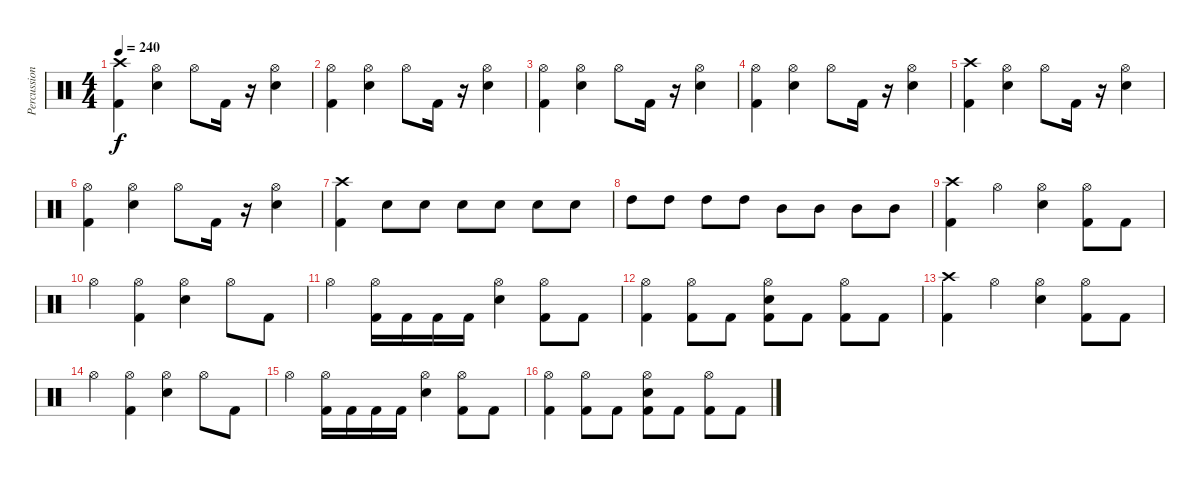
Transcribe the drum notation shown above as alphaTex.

\track ("Percussion" "Percussion") {instrument percussion}
\staff {score}
\articulation defaults
\ts (4 4)
\tempo 240
\clef neutral
\ks c
("Kick (hit) 2" "Crash high (hit)").4{dy f} ("Electric Snare (hit)" "Hi-Hat (open)").4 "Hi-Hat (open)".8 "Kick (hit) 2".16 r.16 ("Electric Snare (hit)" "Hi-Hat (open)").4 |
("Kick (hit) 2" "Hi-Hat (open)").4 ("Electric Snare (hit)" "Hi-Hat (open)").4 "Hi-Hat (open)".8 "Kick (hit) 2".16 r.16 ("Electric Snare (hit)" "Hi-Hat (open)").4 |
("Kick (hit) 2" "Hi-Hat (open)").4 ("Electric Snare (hit)" "Hi-Hat (open)").4 "Hi-Hat (open)".8 "Kick (hit) 2".16 r.16 ("Electric Snare (hit)" "Hi-Hat (open)").4 |
("Kick (hit) 2" "Hi-Hat (open)").4 ("Electric Snare (hit)" "Hi-Hat (open)").4 "Hi-Hat (open)".8 "Kick (hit) 2".16 r.16 ("Electric Snare (hit)" "Hi-Hat (open)").4 |
("Kick (hit) 2" "Crash high (hit)").4 ("Electric Snare (hit)" "Hi-Hat (open)").4 "Hi-Hat (open)".8 "Kick (hit) 2".16 r.16 ("Electric Snare (hit)" "Hi-Hat (open)").4 |
("Kick (hit) 2" "Hi-Hat (open)").4 ("Electric Snare (hit)" "Hi-Hat (open)").4 "Hi-Hat (open)".8 "Kick (hit) 2".16 r.16 ("Electric Snare (hit)" "Hi-Hat (open)").4 |
("Kick (hit) 2" "Crash high (hit)").4 "Electric Snare (hit)".8 "Electric Snare (hit)".8 "Electric Snare (hit)".8 "Electric Snare (hit)".8 "Electric Snare (hit)".8 "Electric Snare (hit)".8 |
"High Tom (hit)".8 "High Tom (hit)".8 "High Tom (hit)".8 "High Tom (hit)".8 "Mid Tom (hit)".8 "Mid Tom (hit)".8 "Mid Tom (hit)".8 "Mid Tom (hit)".8 |
("Kick (hit) 2" "Crash high (hit)").4 "Hi-Hat (open)".4 ("Electric Snare (hit)" "Hi-Hat (open)").4 ("Kick (hit) 2" "Hi-Hat (open)").8 "Kick (hit) 2".8 |
"Hi-Hat (open)".4 ("Kick (hit) 2" "Hi-Hat (open)").4 ("Electric Snare (hit)" "Hi-Hat (open)").4 "Hi-Hat (open)".8 "Kick (hit) 2".8 |
"Hi-Hat (open)".4 ("Kick (hit) 2" "Hi-Hat (open)").16 "Kick (hit) 2".16 "Kick (hit) 2".16 "Kick (hit) 2".16 ("Electric Snare (hit)" "Hi-Hat (open)").4 ("Kick (hit) 2" "Hi-Hat (open)").8 "Kick (hit) 2".8 |
("Kick (hit) 2" "Hi-Hat (open)").4 ("Kick (hit) 2" "Hi-Hat (open)").8 "Kick (hit) 2".8 ("Kick (hit) 2" "Electric Snare (hit)" "Hi-Hat (open)").8 "Kick (hit) 2".8 ("Kick (hit) 2" "Hi-Hat (open)").8 "Kick (hit) 2".8 |
("Kick (hit) 2" "Crash high (hit)").4 "Hi-Hat (open)".4 ("Electric Snare (hit)" "Hi-Hat (open)").4 ("Kick (hit) 2" "Hi-Hat (open)").8 "Kick (hit) 2".8 |
"Hi-Hat (open)".4 ("Kick (hit) 2" "Hi-Hat (open)").4 ("Electric Snare (hit)" "Hi-Hat (open)").4 "Hi-Hat (open)".8 "Kick (hit) 2".8 |
"Hi-Hat (open)".4 ("Kick (hit) 2" "Hi-Hat (open)").16 "Kick (hit) 2".16 "Kick (hit) 2".16 "Kick (hit) 2".16 ("Electric Snare (hit)" "Hi-Hat (open)").4 ("Kick (hit) 2" "Hi-Hat (open)").8 "Kick (hit) 2".8 |
("Kick (hit) 2" "Hi-Hat (open)").4 ("Kick (hit) 2" "Hi-Hat (open)").8 "Kick (hit) 2".8 ("Kick (hit) 2" "Electric Snare (hit)" "Hi-Hat (open)").8 "Kick (hit) 2".8 ("Kick (hit) 2" "Hi-Hat (open)").8 "Kick (hit) 2".8
